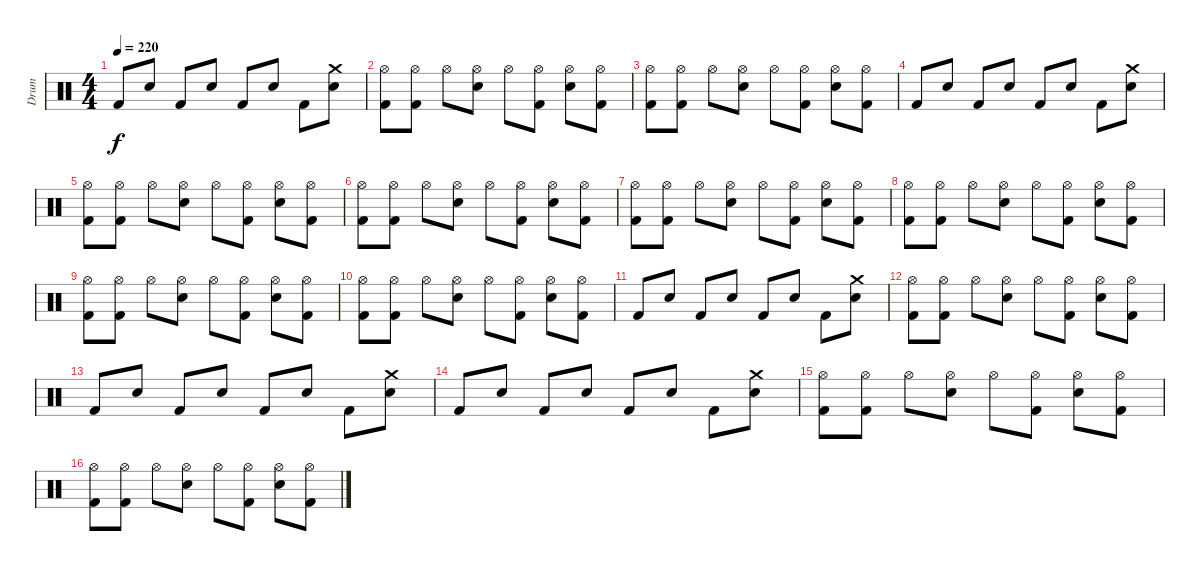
\track ("Drum" "Drum") {instrument percussion}
\staff {score}
\articulation defaults
\ts (4 4)
\tempo 220
\clef neutral
\ks c "Kick (hit) 2".8{dy f} "Snare (hit) 2".8 "Kick (hit) 2".8 "Snare (hit) 2".8 "Kick (hit) 2".8 "Snare (hit) 2".8 "Kick (hit) 2".8
("Crash medium (hit)" "Snare (hit) 2").8 |
("Hi-Hat (open)" "Kick (hit) 2").8 ("Hi-Hat (open)" "Kick (hit) 2").8 "Hi-Hat (open)".8 ("Hi-Hat (open)" "Snare (hit) 2").8 "Hi-Hat (open)".8 ("Hi-Hat (open)" "Kick (hit) 2").8 ("Hi-Hat (open)" "Snare (hit) 2").8 ("Hi-Hat (open)" "Kick (hit) 2").8 |
("Hi-Hat (open)" "Kick (hit) 2").8 ("Hi-Hat (open)" "Kick (hit) 2").8 "Hi-Hat (open)".8 ("Hi-Hat (open)" "Snare (hit) 2").8 "Hi-Hat (open)".8 ("Hi-Hat (open)" "Kick (hit) 2").8 ("Hi-Hat (open)" "Snare (hit) 2").8 ("Hi-Hat (open)" "Kick (hit) 2").8 |
"Kick (hit) 2".8 "Snare (hit) 2".8 "Kick (hit) 2".8 "Snare (hit) 2".8 "Kick (hit) 2".8 "Snare (hit) 2".8 "Kick (hit) 2".8 ("Crash medium (hit)" "Snare (hit) 2").8 |
("Hi-Hat (open)" "Kick (hit) 2").8 ("Hi-Hat (open)" "Kick (hit) 2").8 "Hi-Hat (open)".8 ("Hi-Hat (open)" "Snare (hit) 2").8 "Hi-Hat (open)".8 ("Hi-Hat (open)" "Kick (hit) 2").8 ("Hi-Hat (open)" "Snare (hit) 2").8 ("Hi-Hat (open)" "Kick (hit) 2").8 |
("Hi-Hat (open)" "Kick (hit) 2").8 ("Hi-Hat (open)" "Kick (hit) 2").8 "Hi-Hat (open)".8 ("Hi-Hat (open)" "Snare (hit) 2").8 "Hi-Hat (open)".8 ("Hi-Hat (open)" "Kick (hit) 2").8 ("Hi-Hat (open)" "Snare (hit) 2").8 ("Hi-Hat (open)" "Kick (hit) 2").8 |
("Hi-Hat (open)" "Kick (hit) 2").8 ("Hi-Hat (open)" "Kick (hit) 2").8 "Hi-Hat (open)".8 ("Hi-Hat (open)" "Snare (hit) 2").8 "Hi-Hat (open)".8 ("Hi-Hat (open)" "Kick (hit) 2").8 ("Hi-Hat (open)" "Snare (hit) 2").8 ("Hi-Hat (open)" "Kick (hit) 2").8 |
("Hi-Hat (open)" "Kick (hit) 2").8 ("Hi-Hat (open)" "Kick (hit) 2").8 "Hi-Hat (open)".8 ("Hi-Hat (open)" "Snare (hit) 2").8 "Hi-Hat (open)".8 ("Hi-Hat (open)" "Kick (hit) 2").8 ("Hi-Hat (open)" "Snare (hit) 2").8 ("Hi-Hat (open)" "Kick (hit) 2").8 |
("Hi-Hat (open)" "Kick (hit) 2").8 ("Hi-Hat (open)" "Kick (hit) 2").8 "Hi-Hat (open)".8 ("Hi-Hat (open)" "Snare (hit) 2").8 "Hi-Hat (open)".8 ("Hi-Hat (open)" "Kick (hit) 2").8 ("Hi-Hat (open)" "Snare (hit) 2").8 ("Hi-Hat (open)" "Kick (hit) 2").8 |
("Hi-Hat (open)" "Kick (hit) 2").8 ("Hi-Hat (open)" "Kick (hit) 2").8 "Hi-Hat (open)".8 ("Hi-Hat (open)" "Snare (hit) 2").8 "Hi-Hat (open)".8 ("Hi-Hat (open)" "Kick (hit) 2").8 ("Hi-Hat (open)" "Snare (hit) 2").8 ("Hi-Hat (open)" "Kick (hit) 2").8 |
"Kick (hit) 2".8 "Snare (hit) 2".8 "Kick (hit) 2".8 "Snare (hit) 2".8 "Kick (hit) 2".8 "Snare (hit) 2".8 "Kick (hit) 2".8 ("Crash medium (hit)" "Snare (hit) 2").8 |
("Hi-Hat (open)" "Kick (hit) 2").8 ("Hi-Hat (open)" "Kick (hit) 2").8 "Hi-Hat (open)".8 ("Hi-Hat (open)" "Snare (hit) 2").8 "Hi-Hat (open)".8 ("Hi-Hat (open)" "Kick (hit) 2").8 ("Hi-Hat (open)" "Snare (hit) 2").8 ("Hi-Hat (open)" "Kick (hit) 2").8 |
"Kick (hit) 2".8 "Snare (hit) 2".8 "Kick (hit) 2".8 "Snare (hit) 2".8 "Kick (hit) 2".8 "Snare (hit) 2".8 "Kick (hit) 2".8 ("Crash medium (hit)" "Snare (hit) 2").8 |
"Kick (hit) 2".8 "Snare (hit) 2".8 "Kick (hit) 2".8 "Snare (hit) 2".8 "Kick (hit) 2".8 "Snare (hit) 2".8 "Kick (hit) 2".8 ("Crash medium (hit)" "Snare (hit) 2").8 |
("Hi-Hat (open)" "Kick (hit) 2").8 ("Hi-Hat (open)" "Kick (hit) 2").8 "Hi-Hat (open)".8 ("Hi-Hat (open)" "Snare (hit) 2").8 "Hi-Hat (open)".8 ("Hi-Hat (open)" "Kick (hit) 2").8 ("Hi-Hat (open)" "Snare (hit) 2").8 ("Hi-Hat (open)" "Kick (hit) 2").8 |
("Hi-Hat (open)" "Kick (hit) 2").8 ("Hi-Hat (open)" "Kick (hit) 2").8 "Hi-Hat (open)".8 ("Hi-Hat (open)" "Snare (hit) 2").8 "Hi-Hat (open)".8 ("Hi-Hat (open)" "Kick (hit) 2").8 ("Hi-Hat (open)" "Snare (hit) 2").8 ("Hi-Hat (open)" "Kick (hit) 2").8
